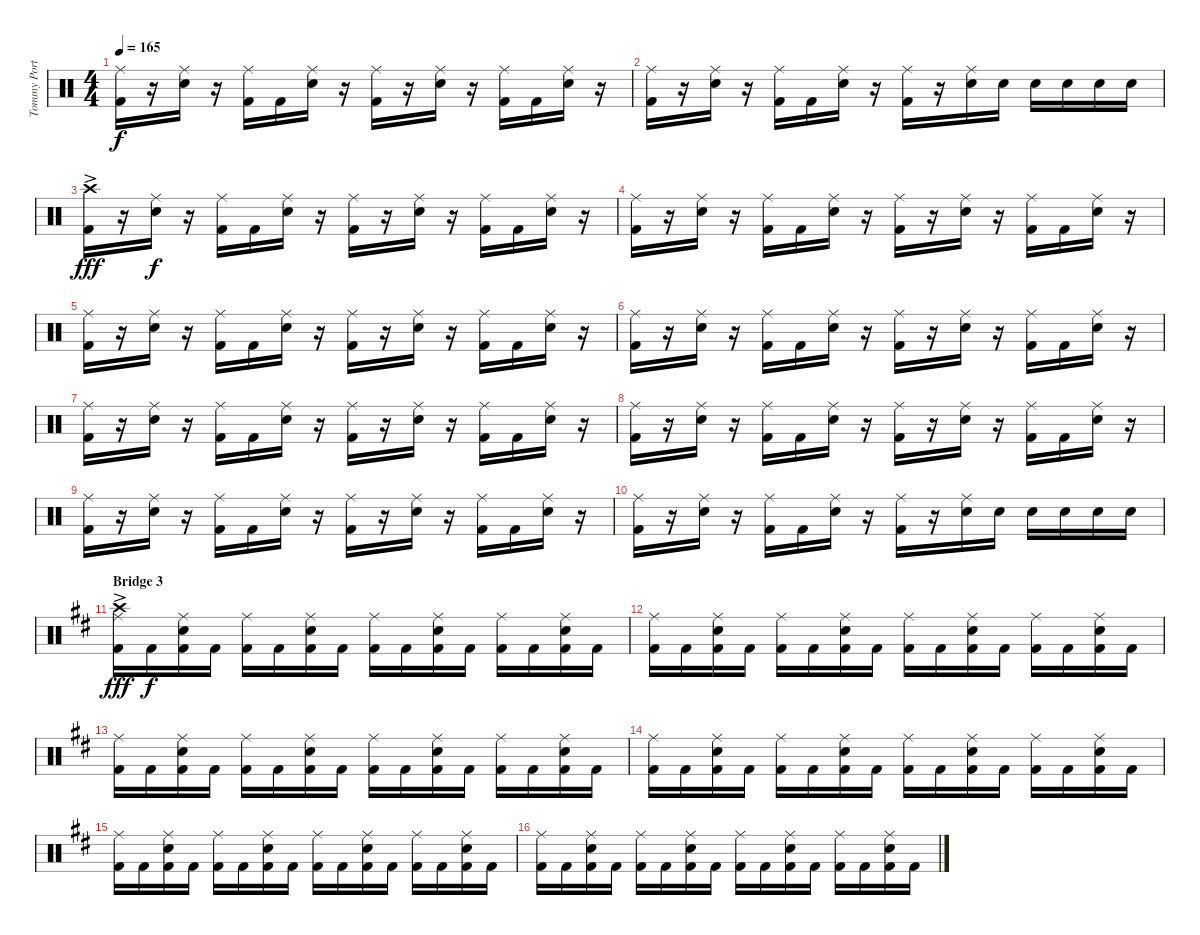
\track ("Tommy Portimo" "Tommy Port") {instrument percussion}
\staff {score}
\articulation defaults
\ts (4 4)
\tempo 165
\clef neutral
\ks aminor
("Ride (middle)" "Kick (hit) 2").16{dy f} r.16 ("Ride (middle)" "Electric Snare (hit)").16 r.16 ("Ride (middle)" "Kick (hit) 2").16 "Kick (hit) 2".16 ("Ride (middle)" "Electric Snare (hit)").16 r.16 ("Ride (middle)" "Kick (hit) 2").16 r.16 ("Ride (middle)" "Electric Snare (hit)").16 r.16 ("Ride (middle)" "Kick (hit) 2").16 "Kick (hit) 2".16 ("Ride (middle)" "Electric Snare (hit)").16 r.16 |
("Ride (middle)" "Kick (hit) 2").16 r.16 ("Ride (middle)" "Electric Snare (hit)").16 r.16 ("Ride (middle)" "Kick (hit) 2").16 "Kick (hit) 2".16 ("Ride (middle)" "Electric Snare (hit)").16 r.16 ("Ride (middle)" "Kick (hit) 2").16 r.16 ("Ride (middle)" "Electric Snare (hit)").16 "Electric Snare (hit)".16 "Electric Snare (hit)".16 "Electric Snare (hit)".16 "Electric Snare (hit)".16 "Electric Snare (hit)".16 |
("Crash high (hit)"{ac} "Kick (hit) 2").16{dy fff} r.16 ("Ride (middle)" "Electric Snare (hit)").16{dy f} r.16 ("Ride (middle)" "Kick (hit) 2").16 "Kick (hit) 2".16 ("Ride (middle)" "Electric Snare (hit)").16 r.16 ("Ride (middle)" "Kick (hit) 2").16 r.16 ("Ride (middle)" "Electric Snare (hit)").16 r.16 ("Ride (middle)" "Kick (hit) 2").16 "Kick (hit) 2".16 ("Ride (middle)" "Electric Snare (hit)").16 r.16 |
("Ride (middle)" "Kick (hit) 2").16 r.16 ("Ride (middle)" "Electric Snare (hit)").16 r.16 ("Ride (middle)" "Kick (hit) 2").16 "Kick (hit) 2".16 ("Ride (middle)" "Electric Snare (hit)").16 r.16 ("Ride (middle)" "Kick (hit) 2").16 r.16 ("Ride (middle)" "Electric Snare (hit)").16 r.16 ("Ride (middle)" "Kick (hit) 2").16 "Kick (hit) 2".16 ("Ride (middle)" "Electric Snare (hit)").16 r.16 |
("Ride (middle)" "Kick (hit) 2").16 r.16 ("Ride (middle)" "Electric Snare (hit)").16 r.16 ("Ride (middle)" "Kick (hit) 2").16 "Kick (hit) 2".16 ("Ride (middle)" "Electric Snare (hit)").16 r.16 ("Ride (middle)" "Kick (hit) 2").16 r.16 ("Ride (middle)" "Electric Snare (hit)").16 r.16 ("Ride (middle)" "Kick (hit) 2").16 "Kick (hit) 2".16 ("Ride (middle)" "Electric Snare (hit)").16 r.16 |
("Ride (middle)" "Kick (hit) 2").16 r.16 ("Ride (middle)" "Electric Snare (hit)").16 r.16 ("Ride (middle)" "Kick (hit) 2").16 "Kick (hit) 2".16 ("Ride (middle)" "Electric Snare (hit)").16 r.16 ("Ride (middle)" "Kick (hit) 2").16 r.16 ("Ride (middle)" "Electric Snare (hit)").16 r.16 ("Ride (middle)" "Kick (hit) 2").16 "Kick (hit) 2".16 ("Ride (middle)" "Electric Snare (hit)").16 r.16 |
("Ride (middle)" "Kick (hit) 2").16 r.16 ("Ride (middle)" "Electric Snare (hit)").16 r.16 ("Ride (middle)" "Kick (hit) 2").16 "Kick (hit) 2".16 ("Ride (middle)" "Electric Snare (hit)").16 r.16 ("Ride (middle)" "Kick (hit) 2").16 r.16 ("Ride (middle)" "Electric Snare (hit)").16 r.16 ("Ride (middle)" "Kick (hit) 2").16 "Kick (hit) 2".16 ("Ride (middle)" "Electric Snare (hit)").16 r.16 |
("Ride (middle)" "Kick (hit) 2").16 r.16 ("Ride (middle)" "Electric Snare (hit)").16 r.16 ("Ride (middle)" "Kick (hit) 2").16 "Kick (hit) 2".16 ("Ride (middle)" "Electric Snare (hit)").16 r.16 ("Ride (middle)" "Kick (hit) 2").16 r.16 ("Ride (middle)" "Electric Snare (hit)").16 r.16 ("Ride (middle)" "Kick (hit) 2").16 "Kick (hit) 2".16 ("Ride (middle)" "Electric Snare (hit)").16 r.16 |
("Ride (middle)" "Kick (hit) 2").16 r.16 ("Ride (middle)" "Electric Snare (hit)").16 r.16 ("Ride (middle)" "Kick (hit) 2").16 "Kick (hit) 2".16 ("Ride (middle)" "Electric Snare (hit)").16 r.16 ("Ride (middle)" "Kick (hit) 2").16 r.16 ("Ride (middle)" "Electric Snare (hit)").16 r.16 ("Ride (middle)" "Kick (hit) 2").16 "Kick (hit) 2".16 ("Ride (middle)" "Electric Snare (hit)").16 r.16 |
("Ride (middle)" "Kick (hit) 2").16 r.16 ("Ride (middle)" "Electric Snare (hit)").16 r.16 ("Ride (middle)" "Kick (hit) 2").16 "Kick (hit) 2".16 ("Ride (middle)" "Electric Snare (hit)").16 r.16 ("Ride (middle)" "Kick (hit) 2").16 r.16 ("Ride (middle)" "Electric Snare (hit)").16 "Electric Snare (hit)".16 "Electric Snare (hit)".16 "Electric Snare (hit)".16 "Electric Snare (hit)".16 "Electric Snare (hit)".16 |
\section ("" "Bridge 3")
\ks bminor
("Crash high (hit)"{ac} "Ride (middle)" "Kick (hit) 2").16{dy fff} "Kick (hit) 2".16{dy f} ("Ride (middle)" "Electric Snare (hit)" "Kick (hit) 2").16 "Kick (hit) 2".16 ("Ride (middle)" "Kick (hit) 2").16 "Kick (hit) 2".16 ("Ride (middle)" "Electric Snare (hit)" "Kick (hit) 2").16 "Kick (hit) 2".16 ("Ride (middle)" "Kick (hit) 2").16 "Kick (hit) 2".16 ("Ride (middle)" "Electric Snare (hit)" "Kick (hit) 2").16 "Kick (hit) 2".16 ("Ride (middle)" "Kick (hit) 2").16 "Kick (hit) 2".16 ("Ride (middle)" "Electric Snare (hit)" "Kick (hit) 2").16 "Kick (hit) 2".16 |
("Ride (middle)" "Kick (hit) 2").16 "Kick (hit) 2".16 ("Ride (middle)" "Electric Snare (hit)" "Kick (hit) 2").16 "Kick (hit) 2".16 ("Ride (middle)" "Kick (hit) 2").16 "Kick (hit) 2".16 ("Ride (middle)" "Electric Snare (hit)" "Kick (hit) 2").16 "Kick (hit) 2".16 ("Ride (middle)" "Kick (hit) 2").16 "Kick (hit) 2".16 ("Ride (middle)" "Electric Snare (hit)" "Kick (hit) 2").16 "Kick (hit) 2".16 ("Ride (middle)" "Kick (hit) 2").16 "Kick (hit) 2".16 ("Ride (middle)" "Electric Snare (hit)" "Kick (hit) 2").16 "Kick (hit) 2".16 |
("Ride (middle)" "Kick (hit) 2").16 "Kick (hit) 2".16 ("Ride (middle)" "Electric Snare (hit)" "Kick (hit) 2").16 "Kick (hit) 2".16 ("Ride (middle)" "Kick (hit) 2").16 "Kick (hit) 2".16 ("Ride (middle)" "Electric Snare (hit)" "Kick (hit) 2").16 "Kick (hit) 2".16 ("Ride (middle)" "Kick (hit) 2").16 "Kick (hit) 2".16 ("Ride (middle)" "Electric Snare (hit)" "Kick (hit) 2").16 "Kick (hit) 2".16 ("Ride (middle)" "Kick (hit) 2").16 "Kick (hit) 2".16 ("Ride (middle)" "Electric Snare (hit)" "Kick (hit) 2").16 "Kick (hit) 2".16 |
("Ride (middle)" "Kick (hit) 2").16 "Kick (hit) 2".16 ("Ride (middle)" "Electric Snare (hit)" "Kick (hit) 2").16 "Kick (hit) 2".16 ("Ride (middle)" "Kick (hit) 2").16 "Kick (hit) 2".16 ("Ride (middle)" "Electric Snare (hit)" "Kick (hit) 2").16 "Kick (hit) 2".16 ("Ride (middle)" "Kick (hit) 2").16 "Kick (hit) 2".16 ("Ride (middle)" "Electric Snare (hit)" "Kick (hit) 2").16 "Kick (hit) 2".16 ("Ride (middle)" "Kick (hit) 2").16 "Kick (hit) 2".16 ("Ride (middle)" "Electric Snare (hit)" "Kick (hit) 2").16 "Kick (hit) 2".16 |
("Ride (middle)" "Kick (hit) 2").16 "Kick (hit) 2".16 ("Ride (middle)" "Electric Snare (hit)" "Kick (hit) 2").16 "Kick (hit) 2".16 ("Ride (middle)" "Kick (hit) 2").16 "Kick (hit) 2".16 ("Ride (middle)" "Electric Snare (hit)" "Kick (hit) 2").16 "Kick (hit) 2".16 ("Ride (middle)" "Kick (hit) 2").16 "Kick (hit) 2".16 ("Ride (middle)" "Electric Snare (hit)" "Kick (hit) 2").16 "Kick (hit) 2".16 ("Ride (middle)" "Kick (hit) 2").16 "Kick (hit) 2".16 ("Ride (middle)" "Electric Snare (hit)" "Kick (hit) 2").16 "Kick (hit) 2".16 |
("Ride (middle)" "Kick (hit) 2").16 "Kick (hit) 2".16 ("Ride (middle)" "Electric Snare (hit)" "Kick (hit) 2").16 "Kick (hit) 2".16 ("Ride (middle)" "Kick (hit) 2").16 "Kick (hit) 2".16 ("Ride (middle)" "Electric Snare (hit)" "Kick (hit) 2").16 "Kick (hit) 2".16 ("Ride (middle)" "Kick (hit) 2").16 "Kick (hit) 2".16 ("Ride (middle)" "Electric Snare (hit)" "Kick (hit) 2").16 "Kick (hit) 2".16 ("Ride (middle)" "Kick (hit) 2").16 "Kick (hit) 2".16 ("Ride (middle)" "Electric Snare (hit)" "Kick (hit) 2").16 "Kick (hit) 2".16
